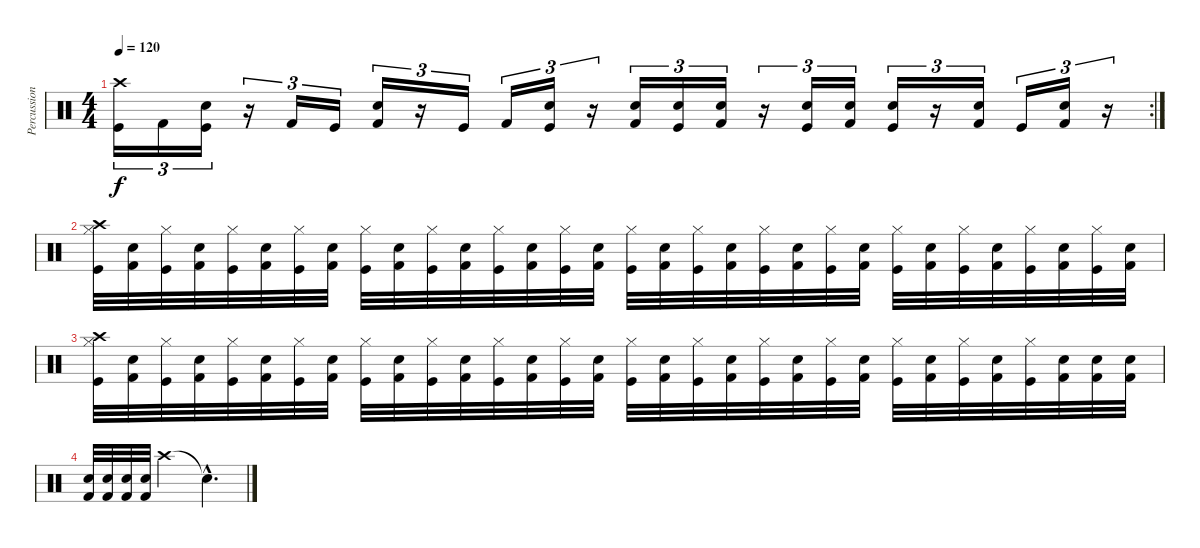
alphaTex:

\track ("Percussion" "Percussion") {instrument percussion}
\staff {score}
\articulation defaults
\rc 2
\ts (4 4)
\tempo 120
\clef neutral
\ks c
("Crash high (hit)" "Kick (hit)").16{tu (3 2) dy f} "Kick (hit) 2".16{tu (3 2)} ("Snare (hit) 2" "Kick (hit)").16{tu (3 2)} r.16{tu (3 2)} "Kick (hit) 2".16{tu (3 2)} "Kick (hit)".16{tu (3 2)} ("Snare (hit) 2" "Kick (hit) 2").16{tu (3 2)} r.16{tu (3 2)} "Kick (hit)".16{tu (3 2)} "Kick (hit) 2".16{tu (3 2)} ("Snare (hit) 2" "Kick (hit)").16{tu (3 2)} r.16{tu (3 2)} ("Snare (hit) 2" "Kick (hit) 2").16{tu (3 2)} ("Snare (hit) 2" "Kick (hit)").16{tu (3 2)} ("Snare (hit) 2" "Kick (hit) 2").16{tu (3 2)} r.16{tu (3 2)} ("Snare (hit) 2" "Kick (hit)").16{tu (3 2)} ("Snare (hit) 2" "Kick (hit) 2").16{tu (3 2)} ("Snare (hit) 2" "Kick (hit)").16{tu (3 2)} r.16{tu (3 2)} ("Snare (hit) 2" "Kick (hit) 2").16{tu (3 2)} "Kick (hit)".16{tu (3 2)} ("Snare (hit) 2" "Kick (hit) 2").16{tu (3 2)} r.16{tu (3 2)} |
("Crash high (hit)" "Hi-Hat (closed)" "Kick (hit)").32 ("Snare (hit) 2" "Kick (hit) 2").32 ("Hi-Hat (closed)" "Kick (hit)").32 ("Snare (hit) 2" "Kick (hit) 2").32 ("Hi-Hat (closed)" "Kick (hit)").32 ("Snare (hit) 2" "Kick (hit) 2").32 ("Hi-Hat (closed)" "Kick (hit)").32 ("Snare (hit) 2" "Kick (hit) 2").32 ("Hi-Hat (closed)" "Kick (hit)").32 ("Snare (hit) 2" "Kick (hit) 2").32 ("Hi-Hat (closed)" "Kick (hit)").32 ("Snare (hit) 2" "Kick (hit) 2").32 ("Hi-Hat (closed)" "Kick (hit)").32 ("Snare (hit) 2" "Kick (hit) 2").32 ("Hi-Hat (closed)" "Kick (hit)").32 ("Snare (hit) 2" "Kick (hit) 2").32 ("Hi-Hat (closed)" "Kick (hit)").32 ("Snare (hit) 2" "Kick (hit) 2").32 ("Hi-Hat (closed)" "Kick (hit)").32 ("Snare (hit) 2" "Kick (hit) 2").32 ("Hi-Hat (closed)" "Kick (hit)").32 ("Snare (hit) 2" "Kick (hit) 2").32 ("Hi-Hat (closed)" "Kick (hit)").32 ("Snare (hit) 2" "Kick (hit) 2").32 ("Hi-Hat (closed)" "Kick (hit)").32 ("Snare (hit) 2" "Kick (hit) 2").32 ("Hi-Hat (closed)" "Kick (hit)").32 ("Snare (hit) 2" "Kick (hit) 2").32 ("Hi-Hat (closed)" "Kick (hit)").32 ("Snare (hit) 2" "Kick (hit) 2").32 ("Hi-Hat (closed)" "Kick (hit)").32 ("Snare (hit) 2" "Kick (hit) 2").32 |
("Crash high (hit)" "Hi-Hat (closed)" "Kick (hit)").32 ("Snare (hit) 2" "Kick (hit) 2").32 ("Hi-Hat (closed)" "Kick (hit)").32 ("Snare (hit) 2" "Kick (hit) 2").32 ("Hi-Hat (closed)" "Kick (hit)").32 ("Snare (hit) 2" "Kick (hit) 2").32 ("Hi-Hat (closed)" "Kick (hit)").32 ("Snare (hit) 2" "Kick (hit) 2").32 ("Hi-Hat (closed)" "Kick (hit)").32 ("Snare (hit) 2" "Kick (hit) 2").32 ("Hi-Hat (closed)" "Kick (hit)").32 ("Snare (hit) 2" "Kick (hit) 2").32 ("Hi-Hat (closed)" "Kick (hit)").32 ("Snare (hit) 2" "Kick (hit) 2").32 ("Hi-Hat (closed)" "Kick (hit)").32 ("Snare (hit) 2" "Kick (hit) 2").32 ("Hi-Hat (closed)" "Kick (hit)").32 ("Snare (hit) 2" "Kick (hit) 2").32 ("Hi-Hat (closed)" "Kick (hit)").32 ("Snare (hit) 2" "Kick (hit) 2").32 ("Hi-Hat (closed)" "Kick (hit)").32 ("Snare (hit) 2" "Kick (hit) 2").32 ("Hi-Hat (closed)" "Kick (hit)").32 ("Snare (hit) 2" "Kick (hit) 2").32 ("Hi-Hat (closed)" "Kick (hit)").32 ("Snare (hit) 2" "Kick (hit) 2").32 ("Hi-Hat (closed)" "Kick (hit)").32 ("Snare (hit) 2" "Kick (hit) 2").32 ("Hi-Hat (closed)" "Kick (hit)").32 ("Snare (hit) 2" "Kick (hit) 2").32 ("Snare (hit) 2" "Kick (hit) 2").32 ("Snare (hit) 2" "Kick (hit) 2").32 |
("Kick (hit) 2" "Snare (hit) 2").32 ("Kick (hit) 2" "Snare (hit) 2").32 ("Kick (hit) 2" "Snare (hit) 2").32 ("Kick (hit) 2" "Snare (hit) 2").32 "Crash high (hit)".2 "Snare (hit)"{hac t}.4{d}
